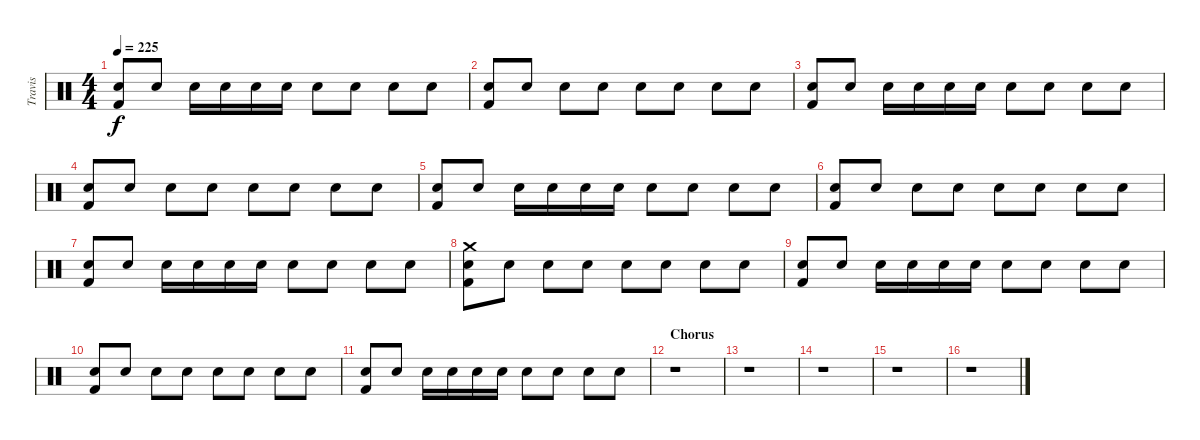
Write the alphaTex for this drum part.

\track ("Travis" "Travis") {instrument percussion}
\staff {score}
\articulation defaults
\ts (4 4)
\tempo 225
\clef neutral
\ks c
("Snare (hit) 2" "Kick (hit) 2").8{dy f} "Snare (hit) 2".8 "Snare (hit) 2".16 "Snare (hit) 2".16 "Snare (hit) 2".16 "Snare (hit) 2".16 "Electric Snare (hit)".8 "Electric Snare (hit)".8 "Snare (hit) 2".8 "Snare (hit) 2".8 |
("Snare (hit) 2" "Kick (hit) 2").8 "Snare (hit) 2".8 "Snare (hit) 2".8 "Electric Snare (hit)".8 "Snare (hit) 2".8 "Snare (hit) 2".8 "Electric Snare (hit)".8 "Snare (hit) 2".8 |
("Snare (hit) 2" "Kick (hit) 2").8 "Snare (hit) 2".8 "Snare (hit) 2".16 "Snare (hit) 2".16 "Snare (hit) 2".16 "Snare (hit) 2".16 "Electric Snare (hit)".8 "Electric Snare (hit)".8 "Snare (hit) 2".8 "Snare (hit) 2".8 |
("Snare (hit) 2" "Kick (hit) 2").8 "Snare (hit) 2".8 "Snare (hit) 2".8 "Electric Snare (hit)".8 "Snare (hit) 2".8 "Snare (hit) 2".8 "Electric Snare (hit)".8 "Snare (hit) 2".8 |
("Snare (hit) 2" "Kick (hit) 2").8 "Snare (hit) 2".8 "Snare (hit) 2".16 "Snare (hit) 2".16 "Snare (hit) 2".16 "Snare (hit) 2".16 "Electric Snare (hit)".8 "Electric Snare (hit)".8 "Snare (hit) 2".8 "Snare (hit) 2".8 |
("Snare (hit) 2" "Kick (hit) 2").8 "Snare (hit) 2".8 "Snare (hit) 2".8 "Electric Snare (hit)".8 "Snare (hit) 2".8 "Snare (hit) 2".8 "Electric Snare (hit)".8 "Snare (hit) 2".8 |
("Snare (hit) 2" "Kick (hit) 2").8 "Snare (hit) 2".8 "Snare (hit) 2".16 "Snare (hit) 2".16 "Snare (hit) 2".16 "Snare (hit) 2".16 "Electric Snare (hit)".8 "Electric Snare (hit)".8 "Snare (hit) 2".8 "Snare (hit) 2".8 |
("Snare (hit) 2" "Kick (hit) 2" "Crash medium (hit)").8 "Snare (hit) 2".8 "Snare (hit) 2".8 "Electric Snare (hit)".8 "Snare (hit) 2".8 "Snare (hit) 2".8 "Electric Snare (hit)".8 "Snare (hit) 2".8 |
("Snare (hit) 2" "Kick (hit) 2").8 "Snare (hit) 2".8 "Snare (hit) 2".16 "Snare (hit) 2".16 "Snare (hit) 2".16 "Snare (hit) 2".16 "Electric Snare (hit)".8 "Electric Snare (hit)".8 "Snare (hit) 2".8 "Snare (hit) 2".8 |
("Snare (hit) 2" "Kick (hit) 2").8 "Snare (hit) 2".8 "Snare (hit) 2".8 "Electric Snare (hit)".8 "Snare (hit) 2".8 "Snare (hit) 2".8 "Electric Snare (hit)".8 "Snare (hit) 2".8 |
("Snare (hit) 2" "Kick (hit) 2").8 "Snare (hit) 2".8 "Snare (hit) 2".16 "Snare (hit) 2".16 "Snare (hit) 2".16 "Snare (hit) 2".16 "Electric Snare (hit)".8 "Electric Snare (hit)".8 "Snare (hit) 2".8 "Snare (hit) 2".8 |
\section ("" "Chorus")
r.1 |
r.1 |
r.1 |
r.1 |
r.1
